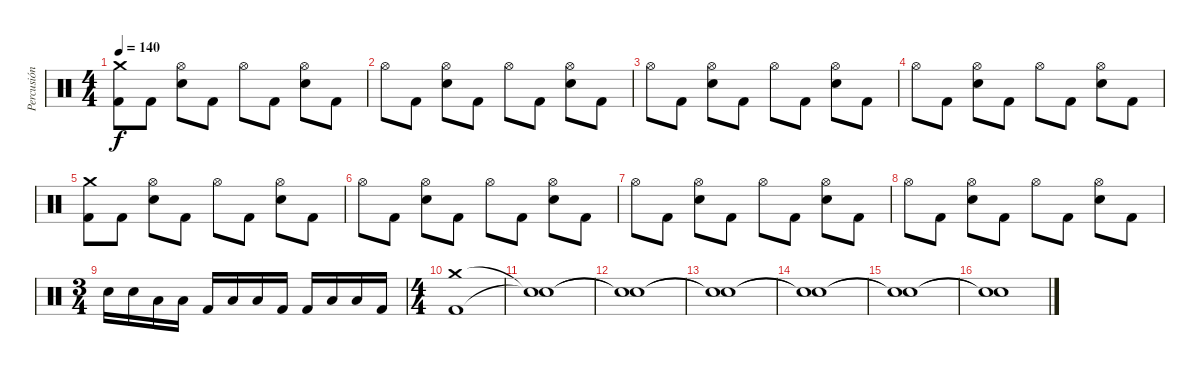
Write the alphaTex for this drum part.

\track ("Percusión" "Percusión") {instrument percussion}
\staff {score}
\articulation defaults
\ts (4 4)
\tempo 140
\clef neutral
\ks c
("Crash medium (hit)" "Kick (hit) 2").8{dy f} "Kick (hit) 2".8 ("Hi-Hat (open)" "Electric Snare (hit)").8 "Kick (hit) 2".8 "Hi-Hat (open)".8 "Kick (hit) 2".8 ("Hi-Hat (open)" "Electric Snare (hit)").8 "Kick (hit) 2".8 |
"Hi-Hat (open)".8 "Kick (hit) 2".8 ("Hi-Hat (open)" "Electric Snare (hit)").8 "Kick (hit) 2".8 "Hi-Hat (open)".8 "Kick (hit) 2".8 ("Hi-Hat (open)" "Electric Snare (hit)").8 "Kick (hit) 2".8 |
"Hi-Hat (open)".8 "Kick (hit) 2".8 ("Hi-Hat (open)" "Electric Snare (hit)").8 "Kick (hit) 2".8 "Hi-Hat (open)".8 "Kick (hit) 2".8 ("Hi-Hat (open)" "Electric Snare (hit)").8 "Kick (hit) 2".8 |
"Hi-Hat (open)".8 "Kick (hit) 2".8 ("Hi-Hat (open)" "Electric Snare (hit)").8 "Kick (hit) 2".8 "Hi-Hat (open)".8 "Kick (hit) 2".8 ("Hi-Hat (open)" "Electric Snare (hit)").8 "Kick (hit) 2".8 |
("Crash medium (hit)" "Kick (hit) 2").8 "Kick (hit) 2".8 ("Hi-Hat (open)" "Electric Snare (hit)").8 "Kick (hit) 2".8 "Hi-Hat (open)".8 "Kick (hit) 2".8 ("Hi-Hat (open)" "Electric Snare (hit)").8 "Kick (hit) 2".8 |
"Hi-Hat (open)".8 "Kick (hit) 2".8 ("Hi-Hat (open)" "Electric Snare (hit)").8 "Kick (hit) 2".8 "Hi-Hat (open)".8 "Kick (hit) 2".8 ("Hi-Hat (open)" "Electric Snare (hit)").8 "Kick (hit) 2".8 |
"Hi-Hat (open)".8 "Kick (hit) 2".8 ("Hi-Hat (open)" "Electric Snare (hit)").8 "Kick (hit) 2".8 "Hi-Hat (open)".8 "Kick (hit) 2".8 ("Hi-Hat (open)" "Electric Snare (hit)").8 "Kick (hit) 2".8 |
"Hi-Hat (open)".8 "Kick (hit) 2".8 ("Hi-Hat (open)" "Electric Snare (hit)").8 "Kick (hit) 2".8 "Hi-Hat (open)".8 "Kick (hit) 2".8 ("Hi-Hat (open)" "Electric Snare (hit)").8 "Kick (hit) 2".8 |
\ts (3 4)
"Electric Snare (hit)".16 "Electric Snare (hit)".16 "Low Tom (hit)".16 "Low Tom (hit)".16 "Kick (hit) 2".16 "Low Tom (hit)".16 "Low Tom (hit)".16 "Kick (hit) 2".16 "Kick (hit) 2".16 "Low Tom (hit)".16 "Low Tom (hit)".16 "Kick (hit) 2".16 |
\ts (4 4)
("Crash medium (hit)" "Kick (hit) 2").1 |
("Snare (hit)"{t} "Snare (hit)"{t}).1 |
("Snare (hit)"{t} "Snare (hit)"{t}).1 |
("Snare (hit)"{t} "Snare (hit)"{t}).1 |
("Snare (hit)"{t} "Snare (hit)"{t}).1 |
("Snare (hit)"{t} "Snare (hit)"{t}).1 |
("Snare (hit)"{t} "Snare (hit)"{t}).1
